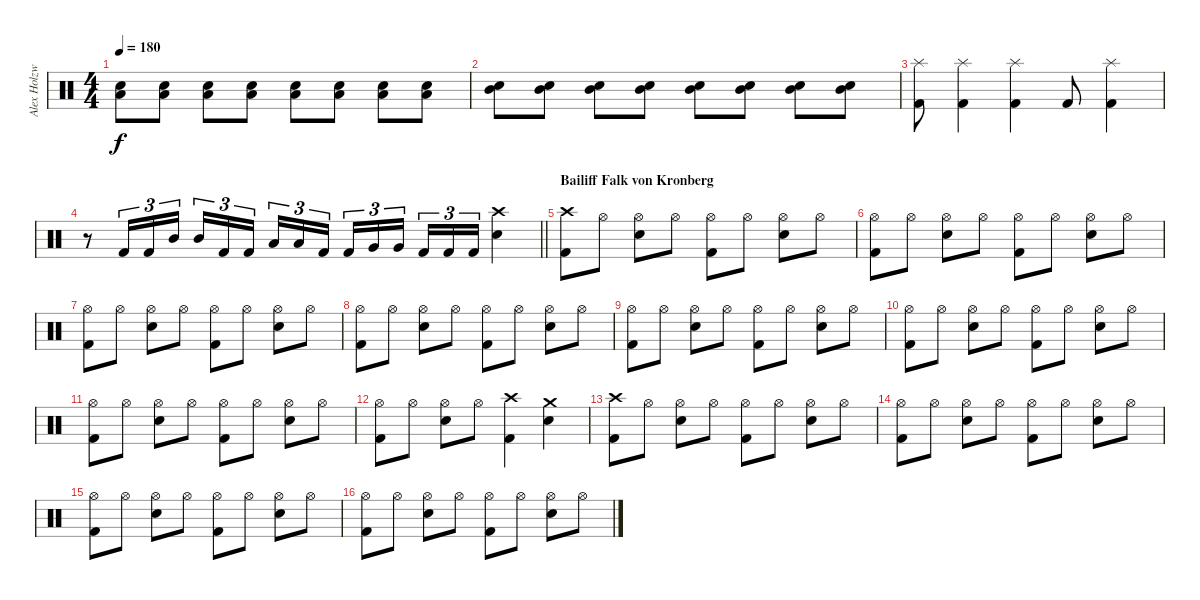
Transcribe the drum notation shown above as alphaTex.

\track ("Alex Holzwarth" "Alex Holzw") {instrument percussion}
\staff {score}
\articulation defaults
\ts (4 4)
\tempo 180
\clef neutral
\ks c
("Electric Snare (hit)" "Low Tom (hit)").8{dy f} ("Electric Snare (hit)" "Low Tom (hit)").8 ("Electric Snare (hit)" "Low Tom (hit)").8 ("Electric Snare (hit)" "Low Tom (hit)").8 ("Electric Snare (hit)" "Low Tom (hit)").8 ("Electric Snare (hit)" "Low Tom (hit)").8 ("Electric Snare (hit)" "Low Tom (hit)").8 ("Electric Snare (hit)" "Low Tom (hit)").8 |
("Electric Snare (hit)" "Mid Tom (hit)").8 ("Electric Snare (hit)" "Mid Tom (hit)").8 ("Electric Snare (hit)" "Mid Tom (hit)").8 ("Electric Snare (hit)" "Mid Tom (hit)").8 ("Electric Snare (hit)" "Mid Tom (hit)").8 ("Electric Snare (hit)" "Mid Tom (hit)").8 ("Electric Snare (hit)" "Mid Tom (hit)").8 ("Electric Snare (hit)" "Mid Tom (hit)").8 |
("Splash (hit)" "Kick (hit) 2").8 ("Splash (hit)" "Kick (hit) 2").4 ("Splash (hit)" "Kick (hit) 2").4 "Kick (hit) 2".8 ("Splash (hit)" "Kick (hit) 2").4 |
\barLineRight lightlight
r.8 "Kick (hit) 2".16{tu (3 2)} "Kick (hit) 2".16{tu (3 2)} "Mid Tom (hit)".16{tu (3 2)} "Mid Tom (hit)".16{tu (3 2)} "Kick (hit) 2".16{tu (3 2)} "Kick (hit) 2".16{tu (3 2) beam splitsecondary} "Low Tom (hit)".16{tu (3 2)} "Low Tom (hit)".16{tu (3 2)} "Kick (hit) 2".16{tu (3 2)} "Kick (hit) 2".16{tu (3 2)} "Very Low Tom (hit)".16{tu (3 2)} "Very Low Tom (hit)".16{tu (3 2) beam splitsecondary} "Kick (hit) 2".16{tu (3 2)} "Kick (hit) 2".16{tu (3 2)} "Kick (hit) 2".16{tu (3 2)} ("Crash high (hit)" "Electric Snare (hit)").4 |
\section ("" "Bailiff Falk von Kronberg")
("Crash high (hit)" "Kick (hit) 2").8 "Hi-Hat (open)".8 ("Hi-Hat (open)" "Electric Snare (hit)").8 "Hi-Hat (open)".8 ("Hi-Hat (open)" "Kick (hit) 2").8 "Hi-Hat (open)".8 ("Hi-Hat (open)" "Electric Snare (hit)").8 "Hi-Hat (open)".8 |
("Hi-Hat (open)" "Kick (hit) 2").8 "Hi-Hat (open)".8 ("Hi-Hat (open)" "Electric Snare (hit)").8 "Hi-Hat (open)".8 ("Hi-Hat (open)" "Kick (hit) 2").8 "Hi-Hat (open)".8 ("Hi-Hat (open)" "Electric Snare (hit)").8 "Hi-Hat (open)".8 |
("Hi-Hat (open)" "Kick (hit) 2").8 "Hi-Hat (open)".8 ("Hi-Hat (open)" "Electric Snare (hit)").8 "Hi-Hat (open)".8 ("Hi-Hat (open)" "Kick (hit) 2").8 "Hi-Hat (open)".8 ("Hi-Hat (open)" "Electric Snare (hit)").8 "Hi-Hat (open)".8 |
("Hi-Hat (open)" "Kick (hit) 2").8 "Hi-Hat (open)".8 ("Hi-Hat (open)" "Electric Snare (hit)").8 "Hi-Hat (open)".8 ("Hi-Hat (open)" "Kick (hit) 2").8 "Hi-Hat (open)".8 ("Hi-Hat (open)" "Electric Snare (hit)").8 "Hi-Hat (open)".8 |
("Hi-Hat (open)" "Kick (hit) 2").8 "Hi-Hat (open)".8 ("Hi-Hat (open)" "Electric Snare (hit)").8 "Hi-Hat (open)".8 ("Hi-Hat (open)" "Kick (hit) 2").8 "Hi-Hat (open)".8 ("Hi-Hat (open)" "Electric Snare (hit)").8 "Hi-Hat (open)".8 |
("Hi-Hat (open)" "Kick (hit) 2").8 "Hi-Hat (open)".8 ("Hi-Hat (open)" "Electric Snare (hit)").8 "Hi-Hat (open)".8 ("Hi-Hat (open)" "Kick (hit) 2").8 "Hi-Hat (open)".8 ("Hi-Hat (open)" "Electric Snare (hit)").8 "Hi-Hat (open)".8 |
("Hi-Hat (open)" "Kick (hit) 2").8 "Hi-Hat (open)".8 ("Hi-Hat (open)" "Electric Snare (hit)").8 "Hi-Hat (open)".8 ("Hi-Hat (open)" "Kick (hit) 2").8 "Hi-Hat (open)".8 ("Hi-Hat (open)" "Electric Snare (hit)").8 "Hi-Hat (open)".8 |
("Hi-Hat (open)" "Kick (hit) 2").8 "Hi-Hat (open)".8 ("Hi-Hat (open)" "Electric Snare (hit)").8 "Hi-Hat (open)".8 ("Crash high (hit)" "Kick (hit) 2").4 ("Crash medium (hit)" "Electric Snare (hit)").4 |
("Crash high (hit)" "Kick (hit) 2").8 "Hi-Hat (open)".8 ("Hi-Hat (open)" "Electric Snare (hit)").8 "Hi-Hat (open)".8 ("Hi-Hat (open)" "Kick (hit) 2").8 "Hi-Hat (open)".8 ("Hi-Hat (open)" "Electric Snare (hit)").8 "Hi-Hat (open)".8 |
("Hi-Hat (open)" "Kick (hit) 2").8 "Hi-Hat (open)".8 ("Hi-Hat (open)" "Electric Snare (hit)").8 "Hi-Hat (open)".8 ("Hi-Hat (open)" "Kick (hit) 2").8 "Hi-Hat (open)".8 ("Hi-Hat (open)" "Electric Snare (hit)").8 "Hi-Hat (open)".8 |
("Hi-Hat (open)" "Kick (hit) 2").8 "Hi-Hat (open)".8 ("Hi-Hat (open)" "Electric Snare (hit)").8 "Hi-Hat (open)".8 ("Hi-Hat (open)" "Kick (hit) 2").8 "Hi-Hat (open)".8 ("Hi-Hat (open)" "Electric Snare (hit)").8 "Hi-Hat (open)".8 |
("Hi-Hat (open)" "Kick (hit) 2").8 "Hi-Hat (open)".8 ("Hi-Hat (open)" "Electric Snare (hit)").8 "Hi-Hat (open)".8 ("Hi-Hat (open)" "Kick (hit) 2").8 "Hi-Hat (open)".8 ("Hi-Hat (open)" "Electric Snare (hit)").8 "Hi-Hat (open)".8
